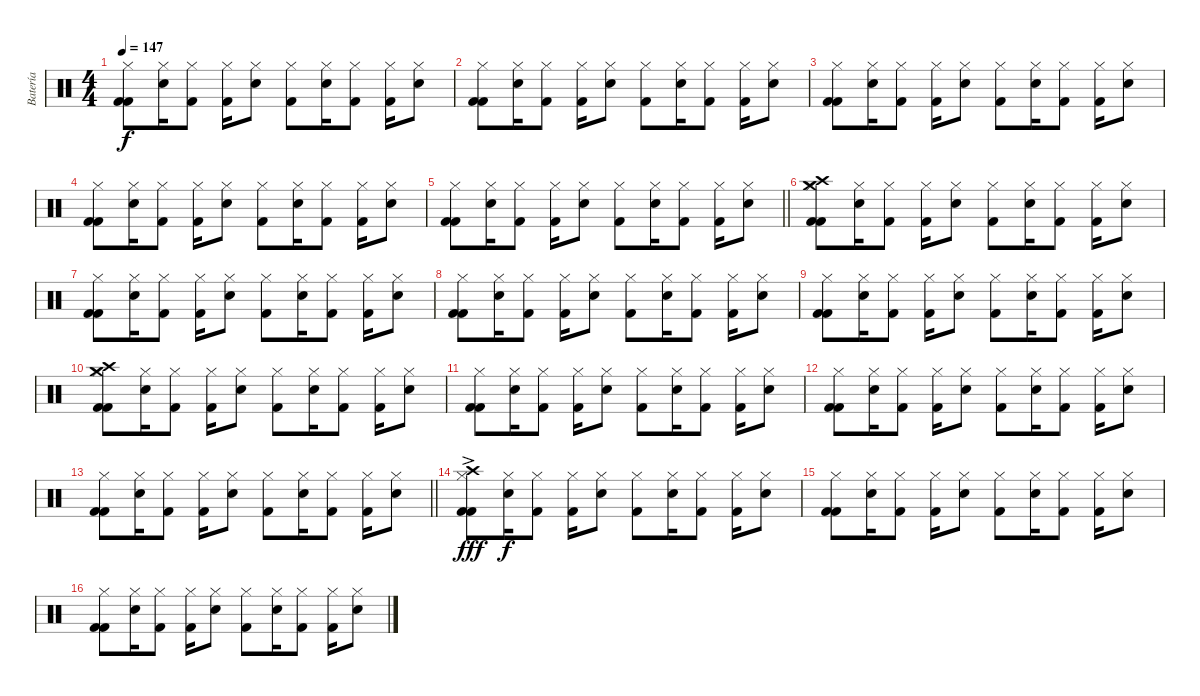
\track ("Batería" "Batería") {instrument percussion}
\staff {score}
\articulation defaults
\ts (4 4)
\tempo 147
\clef neutral
\ks c
("Hi-Hat (closed)" "Kick (hit) 2" "Kick (hit) 2").8{dy f} ("Hi-Hat (closed)" "Electric Snare (hit)").16 ("Hi-Hat (closed)" "Kick (hit) 2").8 ("Hi-Hat (closed)" "Kick (hit) 2").16 ("Hi-Hat (closed)" "Electric Snare (hit)").8 ("Hi-Hat (closed)" "Kick (hit) 2").8 ("Hi-Hat (closed)" "Electric Snare (hit)").16 ("Hi-Hat (closed)" "Kick (hit) 2").8 ("Hi-Hat (closed)" "Kick (hit) 2").16 ("Hi-Hat (closed)" "Electric Snare (hit)").8 |
("Hi-Hat (closed)" "Kick (hit) 2" "Kick (hit) 2").8 ("Hi-Hat (closed)" "Electric Snare (hit)").16 ("Hi-Hat (closed)" "Kick (hit) 2").8 ("Hi-Hat (closed)" "Kick (hit) 2").16 ("Hi-Hat (closed)" "Electric Snare (hit)").8 ("Hi-Hat (closed)" "Kick (hit) 2").8 ("Hi-Hat (closed)" "Electric Snare (hit)").16 ("Hi-Hat (closed)" "Kick (hit) 2").8 ("Hi-Hat (closed)" "Kick (hit) 2").16 ("Hi-Hat (closed)" "Electric Snare (hit)").8 |
("Hi-Hat (closed)" "Kick (hit) 2" "Kick (hit) 2").8 ("Hi-Hat (closed)" "Electric Snare (hit)").16 ("Hi-Hat (closed)" "Kick (hit) 2").8 ("Hi-Hat (closed)" "Kick (hit) 2").16 ("Hi-Hat (closed)" "Electric Snare (hit)").8 ("Hi-Hat (closed)" "Kick (hit) 2").8 ("Hi-Hat (closed)" "Electric Snare (hit)").16 ("Hi-Hat (closed)" "Kick (hit) 2").8 ("Hi-Hat (closed)" "Kick (hit) 2").16 ("Hi-Hat (closed)" "Electric Snare (hit)").8 |
("Hi-Hat (closed)" "Kick (hit) 2" "Kick (hit) 2").8 ("Hi-Hat (closed)" "Electric Snare (hit)").16 ("Hi-Hat (closed)" "Kick (hit) 2").8 ("Hi-Hat (closed)" "Kick (hit) 2").16 ("Hi-Hat (closed)" "Electric Snare (hit)").8 ("Hi-Hat (closed)" "Kick (hit) 2").8 ("Hi-Hat (closed)" "Electric Snare (hit)").16 ("Hi-Hat (closed)" "Kick (hit) 2").8 ("Hi-Hat (closed)" "Kick (hit) 2").16 ("Hi-Hat (closed)" "Electric Snare (hit)").8 |
\barLineRight lightlight
("Hi-Hat (closed)" "Kick (hit) 2" "Kick (hit) 2").8 ("Hi-Hat (closed)" "Electric Snare (hit)").16 ("Hi-Hat (closed)" "Kick (hit) 2").8 ("Hi-Hat (closed)" "Kick (hit) 2").16 ("Hi-Hat (closed)" "Electric Snare (hit)").8 ("Hi-Hat (closed)" "Kick (hit) 2").8 ("Hi-Hat (closed)" "Electric Snare (hit)").16 ("Hi-Hat (closed)" "Kick (hit) 2").8 ("Hi-Hat (closed)" "Kick (hit) 2").16 ("Hi-Hat (closed)" "Electric Snare (hit)").8 |
\section ("" "")
("Crash medium (hit)" "Crash high (hit)" "Hi-Hat (closed)" "Kick (hit) 2" "Kick (hit) 2").8 ("Hi-Hat (closed)" "Electric Snare (hit)").16 ("Hi-Hat (closed)" "Kick (hit) 2").8 ("Hi-Hat (closed)" "Kick (hit) 2").16 ("Hi-Hat (closed)" "Electric Snare (hit)").8 ("Hi-Hat (closed)" "Kick (hit) 2").8 ("Hi-Hat (closed)" "Electric Snare (hit)").16 ("Hi-Hat (closed)" "Kick (hit) 2").8 ("Hi-Hat (closed)" "Kick (hit) 2").16 ("Hi-Hat (closed)" "Electric Snare (hit)").8 |
("Hi-Hat (closed)" "Kick (hit) 2" "Kick (hit) 2").8 ("Hi-Hat (closed)" "Electric Snare (hit)").16 ("Hi-Hat (closed)" "Kick (hit) 2").8 ("Hi-Hat (closed)" "Kick (hit) 2").16 ("Hi-Hat (closed)" "Electric Snare (hit)").8 ("Hi-Hat (closed)" "Kick (hit) 2").8 ("Hi-Hat (closed)" "Electric Snare (hit)").16 ("Hi-Hat (closed)" "Kick (hit) 2").8 ("Hi-Hat (closed)" "Kick (hit) 2").16 ("Hi-Hat (closed)" "Electric Snare (hit)").8 |
("Hi-Hat (closed)" "Kick (hit) 2" "Kick (hit) 2").8 ("Hi-Hat (closed)" "Electric Snare (hit)").16 ("Hi-Hat (closed)" "Kick (hit) 2").8 ("Hi-Hat (closed)" "Kick (hit) 2").16 ("Hi-Hat (closed)" "Electric Snare (hit)").8 ("Hi-Hat (closed)" "Kick (hit) 2").8 ("Hi-Hat (closed)" "Electric Snare (hit)").16 ("Hi-Hat (closed)" "Kick (hit) 2").8 ("Hi-Hat (closed)" "Kick (hit) 2").16 ("Hi-Hat (closed)" "Electric Snare (hit)").8 |
("Hi-Hat (closed)" "Kick (hit) 2" "Kick (hit) 2").8 ("Hi-Hat (closed)" "Electric Snare (hit)").16 ("Hi-Hat (closed)" "Kick (hit) 2").8 ("Hi-Hat (closed)" "Kick (hit) 2").16 ("Hi-Hat (closed)" "Electric Snare (hit)").8 ("Hi-Hat (closed)" "Kick (hit) 2").8 ("Hi-Hat (closed)" "Electric Snare (hit)").16 ("Hi-Hat (closed)" "Kick (hit) 2").8 ("Hi-Hat (closed)" "Kick (hit) 2").16 ("Hi-Hat (closed)" "Electric Snare (hit)").8 |
("Crash medium (hit)" "Crash high (hit)" "Hi-Hat (closed)" "Kick (hit) 2" "Kick (hit) 2").8 ("Hi-Hat (closed)" "Electric Snare (hit)").16 ("Hi-Hat (closed)" "Kick (hit) 2").8 ("Hi-Hat (closed)" "Kick (hit) 2").16 ("Hi-Hat (closed)" "Electric Snare (hit)").8 ("Hi-Hat (closed)" "Kick (hit) 2").8 ("Hi-Hat (closed)" "Electric Snare (hit)").16 ("Hi-Hat (closed)" "Kick (hit) 2").8 ("Hi-Hat (closed)" "Kick (hit) 2").16 ("Hi-Hat (closed)" "Electric Snare (hit)").8 |
("Hi-Hat (closed)" "Kick (hit) 2" "Kick (hit) 2").8 ("Hi-Hat (closed)" "Electric Snare (hit)").16 ("Hi-Hat (closed)" "Kick (hit) 2").8 ("Hi-Hat (closed)" "Kick (hit) 2").16 ("Hi-Hat (closed)" "Electric Snare (hit)").8 ("Hi-Hat (closed)" "Kick (hit) 2").8 ("Hi-Hat (closed)" "Electric Snare (hit)").16 ("Hi-Hat (closed)" "Kick (hit) 2").8 ("Hi-Hat (closed)" "Kick (hit) 2").16 ("Hi-Hat (closed)" "Electric Snare (hit)").8 |
("Hi-Hat (closed)" "Kick (hit) 2" "Kick (hit) 2").8 ("Hi-Hat (closed)" "Electric Snare (hit)").16 ("Hi-Hat (closed)" "Kick (hit) 2").8 ("Hi-Hat (closed)" "Kick (hit) 2").16 ("Hi-Hat (closed)" "Electric Snare (hit)").8 ("Hi-Hat (closed)" "Kick (hit) 2").8 ("Hi-Hat (closed)" "Electric Snare (hit)").16 ("Hi-Hat (closed)" "Kick (hit) 2").8 ("Hi-Hat (closed)" "Kick (hit) 2").16 ("Hi-Hat (closed)" "Electric Snare (hit)").8 |
\barLineRight lightlight
("Hi-Hat (closed)" "Kick (hit) 2" "Kick (hit) 2").8 ("Hi-Hat (closed)" "Electric Snare (hit)").16 ("Hi-Hat (closed)" "Kick (hit) 2").8 ("Hi-Hat (closed)" "Kick (hit) 2").16 ("Hi-Hat (closed)" "Electric Snare (hit)").8 ("Hi-Hat (closed)" "Kick (hit) 2").8 ("Hi-Hat (closed)" "Electric Snare (hit)").16 ("Hi-Hat (closed)" "Kick (hit) 2").8 ("Hi-Hat (closed)" "Kick (hit) 2").16 ("Hi-Hat (closed)" "Electric Snare (hit)").8 |
("Crash high (hit)"{ac} "Hi-Hat (closed)" "Kick (hit) 2" "Kick (hit) 2").8{dy fff} ("Hi-Hat (closed)" "Electric Snare (hit)").16{dy f} ("Hi-Hat (closed)" "Kick (hit) 2").8 ("Hi-Hat (closed)" "Kick (hit) 2").16 ("Hi-Hat (closed)" "Electric Snare (hit)").8 ("Hi-Hat (closed)" "Kick (hit) 2").8 ("Hi-Hat (closed)" "Electric Snare (hit)").16 ("Hi-Hat (closed)" "Kick (hit) 2").8 ("Hi-Hat (closed)" "Kick (hit) 2").16 ("Hi-Hat (closed)" "Electric Snare (hit)").8 |
("Hi-Hat (closed)" "Kick (hit) 2" "Kick (hit) 2").8 ("Hi-Hat (closed)" "Electric Snare (hit)").16 ("Hi-Hat (closed)" "Kick (hit) 2").8 ("Hi-Hat (closed)" "Kick (hit) 2").16 ("Hi-Hat (closed)" "Electric Snare (hit)").8 ("Hi-Hat (closed)" "Kick (hit) 2").8 ("Hi-Hat (closed)" "Electric Snare (hit)").16 ("Hi-Hat (closed)" "Kick (hit) 2").8 ("Hi-Hat (closed)" "Kick (hit) 2").16 ("Hi-Hat (closed)" "Electric Snare (hit)").8 |
("Hi-Hat (closed)" "Kick (hit) 2" "Kick (hit) 2").8 ("Hi-Hat (closed)" "Electric Snare (hit)").16 ("Hi-Hat (closed)" "Kick (hit) 2").8 ("Hi-Hat (closed)" "Kick (hit) 2").16 ("Hi-Hat (closed)" "Electric Snare (hit)").8 ("Hi-Hat (closed)" "Kick (hit) 2").8 ("Hi-Hat (closed)" "Electric Snare (hit)").16 ("Hi-Hat (closed)" "Kick (hit) 2").8 ("Hi-Hat (closed)" "Kick (hit) 2").16 ("Hi-Hat (closed)" "Electric Snare (hit)").8
